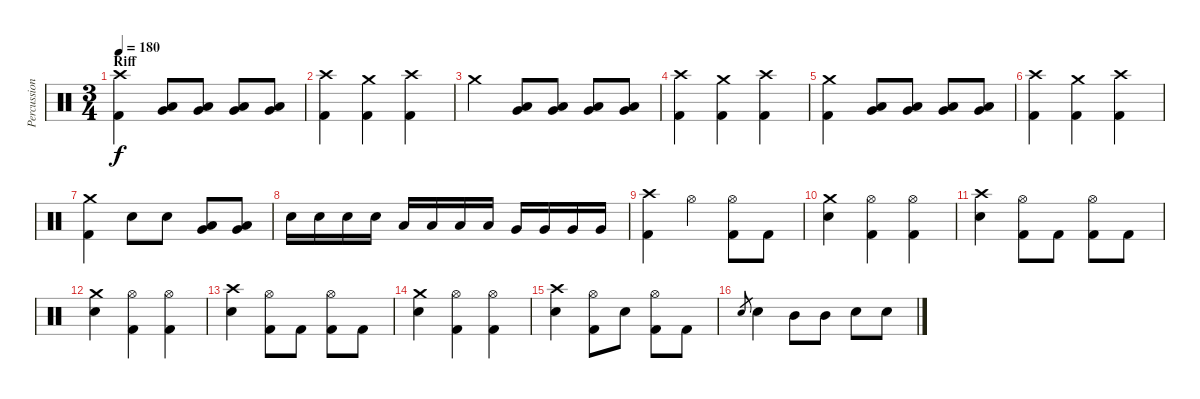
\track ("Percussions" "Percussion") {instrument percussion}
\staff {score}
\articulation defaults
\ts (3 4)
\section ("" "Riff")
\tempo 180
\clef neutral
\ks c
("Crash high (hit)" "Kick (hit) 2").4{dy f} ("Low Tom (hit)" "Very Low Tom (hit)").8 ("Low Tom (hit)" "Very Low Tom (hit)").8 ("Low Tom (hit)" "Very Low Tom (hit)").8 ("Low Tom (hit)" "Very Low Tom (hit)").8 |
("Crash high (hit)" "Kick (hit) 2").4 ("Crash medium (hit)" "Kick (hit) 2").4 ("Crash high (hit)" "Kick (hit) 2").4 |
"Crash medium (hit)".4 ("Low Tom (hit)" "Very Low Tom (hit)").8 ("Low Tom (hit)" "Very Low Tom (hit)").8 ("Low Tom (hit)" "Very Low Tom (hit)").8 ("Low Tom (hit)" "Very Low Tom (hit)").8 |
("Crash high (hit)" "Kick (hit) 2").4 ("Crash medium (hit)" "Kick (hit) 2").4 ("Crash high (hit)" "Kick (hit) 2").4 |
("Crash medium (hit)" "Kick (hit) 2").4 ("Low Tom (hit)" "Very Low Tom (hit)").8 ("Low Tom (hit)" "Very Low Tom (hit)").8 ("Low Tom (hit)" "Very Low Tom (hit)").8 ("Low Tom (hit)" "Very Low Tom (hit)").8 |
("Crash high (hit)" "Kick (hit) 2").4 ("Crash medium (hit)" "Kick (hit) 2").4 ("Crash high (hit)" "Kick (hit) 2").4 |
("Crash medium (hit)" "Kick (hit) 2").4 "Snare (hit) 2".8 "Snare (hit) 2".8 ("Low Tom (hit)" "Very Low Tom (hit)").8 ("Low Tom (hit)" "Very Low Tom (hit)").8 |
"Snare (hit) 2".16 "Snare (hit) 2".16 "Snare (hit) 2".16 "Snare (hit) 2".16 "Low Tom (hit)".16 "Low Tom (hit)".16 "Low Tom (hit)".16 "Low Tom (hit)".16 "Very Low Tom (hit)".16 "Very Low Tom (hit)".16 "Very Low Tom (hit)".16 "Very Low Tom (hit)".16 |
("Crash high (hit)" "Kick (hit) 2").4 "Hi-Hat (open)".4 ("Hi-Hat (open)" "Kick (hit) 2").8 "Kick (hit) 2".8 |
("Crash medium (hit)" "Snare (hit) 2").4 ("Hi-Hat (open)" "Kick (hit) 2").4 ("Hi-Hat (open)" "Kick (hit) 2").4 |
("Crash high (hit)" "Snare (hit) 2").4 ("Hi-Hat (open)" "Kick (hit) 2").8 "Kick (hit) 2".8 ("Hi-Hat (open)" "Kick (hit) 2").8 "Kick (hit) 2".8 |
("Crash medium (hit)" "Snare (hit) 2").4 ("Hi-Hat (open)" "Kick (hit) 2").4 ("Hi-Hat (open)" "Kick (hit) 2").4 |
("Crash high (hit)" "Snare (hit) 2").4 ("Hi-Hat (open)" "Kick (hit) 2").8 "Kick (hit) 2".8 ("Hi-Hat (open)" "Kick (hit) 2").8 "Kick (hit) 2".8 |
("Crash medium (hit)" "Snare (hit) 2").4 ("Hi-Hat (open)" "Kick (hit) 2").4 ("Hi-Hat (open)" "Kick (hit) 2").4 |
("Crash high (hit)" "Snare (hit) 2").4 ("Hi-Hat (open)" "Kick (hit) 2").8 "Snare (hit) 2".8 ("Hi-Hat (open)" "Kick (hit) 2").8 "Kick (hit) 2".8 |
"Snare (hit) 2".8{gr} "Snare (hit) 2".4 "Mid Tom (hit)".8 "Mid Tom (hit)".8 "Snare (hit) 2".8 "Snare (hit) 2".8
